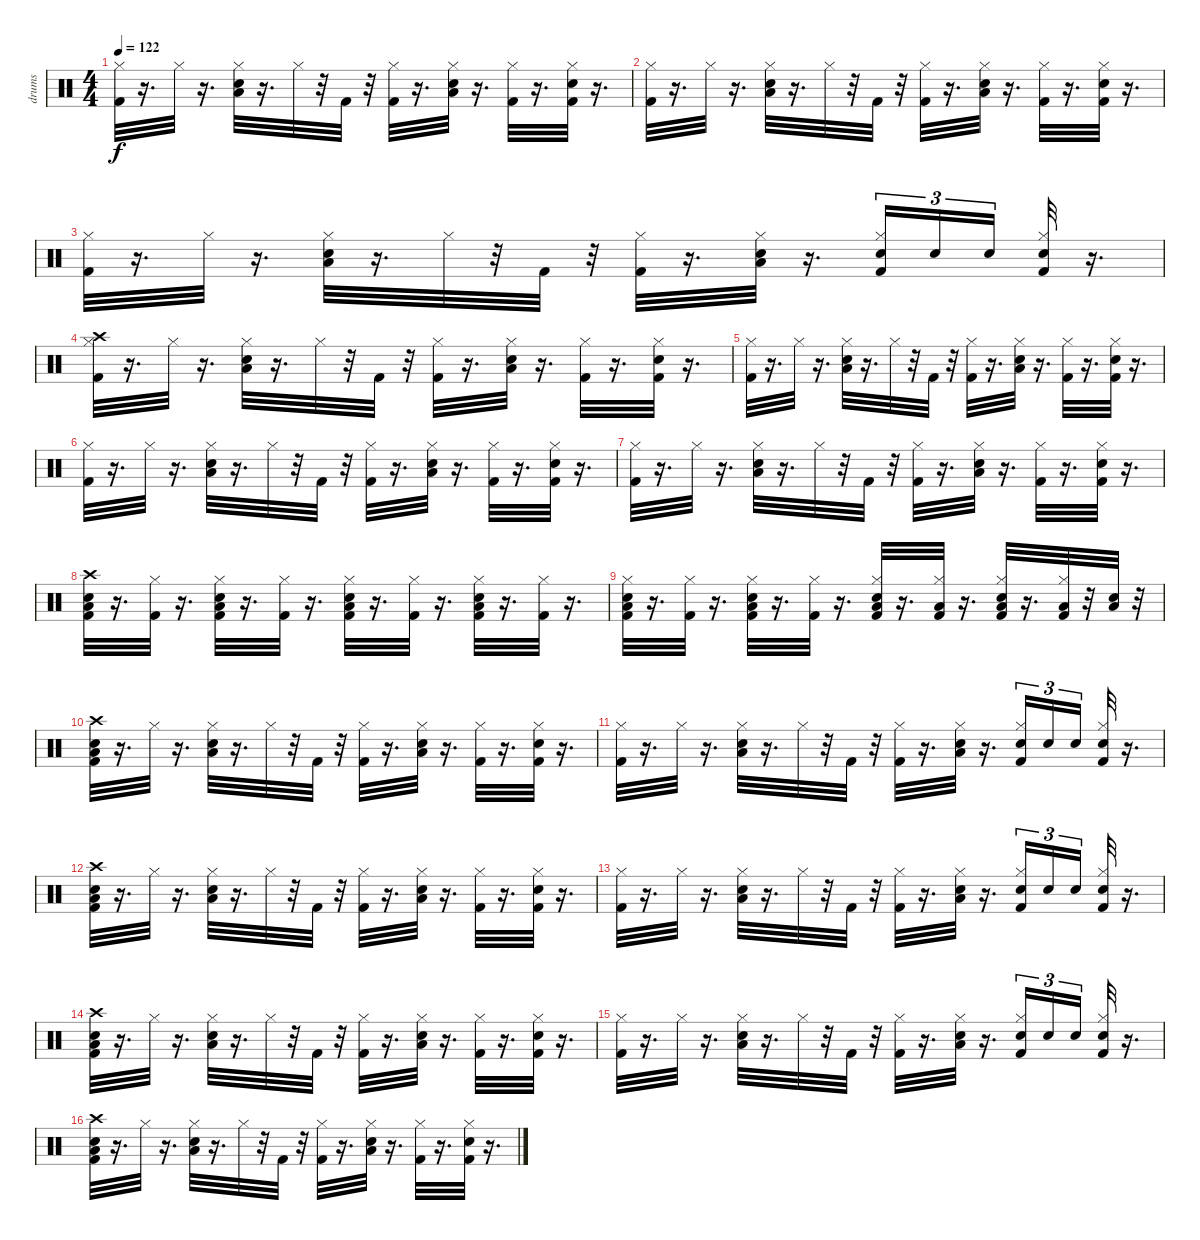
\track ("drums" "drums") {instrument percussion}
\staff {score}
\articulation defaults
\ts (4 4)
\tempo 122
\clef neutral
\ks c
("Kick (hit) 2" "Hi-Hat (closed)").32{dy f} r.16{d} "Hi-Hat (closed)".32 r.16{d} ("Low Floor Tom (hit)" "Hi-Hat (closed)" "Snare (hit) 2").32 r.16{d} "Hi-Hat (closed)".32 r.32 "Kick (hit) 2".32 r.32 ("Hi-Hat (closed)" "Kick (hit) 2").32 r.16{d} ("Low Floor Tom (hit)" "Hi-Hat (closed)" "Snare (hit) 2").32 r.16{d} ("Hi-Hat (closed)" "Kick (hit) 2").32 r.16{d} ("Snare (hit) 2" "Hi-Hat (closed)" "Kick (hit) 2").32 r.16{d} |
("Kick (hit) 2" "Hi-Hat (closed)").32 r.16{d} "Hi-Hat (closed)".32 r.16{d} ("Low Floor Tom (hit)" "Hi-Hat (closed)" "Snare (hit) 2").32 r.16{d} "Hi-Hat (closed)".32 r.32 "Kick (hit) 2".32 r.32 ("Hi-Hat (closed)" "Kick (hit) 2").32 r.16{d} ("Low Floor Tom (hit)" "Hi-Hat (closed)" "Snare (hit) 2").32 r.16{d} ("Hi-Hat (closed)" "Kick (hit) 2").32 r.16{d} ("Snare (hit) 2" "Hi-Hat (closed)" "Kick (hit) 2").32 r.16{d} |
("Kick (hit) 2" "Hi-Hat (closed)").32 r.16{d} "Hi-Hat (closed)".32 r.16{d} ("Low Floor Tom (hit)" "Hi-Hat (closed)" "Snare (hit) 2").32 r.16{d} "Hi-Hat (closed)".32 r.32 "Kick (hit) 2".32 r.32 ("Hi-Hat (closed)" "Kick (hit) 2").32 r.16{d} ("Low Floor Tom (hit)" "Hi-Hat (closed)" "Snare (hit) 2").32 r.16{d} ("Snare (hit) 2" "Hi-Hat (closed)" "Kick (hit) 2").16{tu (3 2)} "Snare (hit) 2".16{tu (3 2)} "Snare (hit) 2".16{tu (3 2)} ("Snare (hit) 2" "Hi-Hat (closed)" "Kick (hit) 2").32 r.16{d} |
("Crash high (hit)" "Kick (hit) 2" "Hi-Hat (closed)").32 r.16{d} "Hi-Hat (closed)".32 r.16{d} ("Low Floor Tom (hit)" "Hi-Hat (closed)" "Snare (hit) 2").32 r.16{d} "Hi-Hat (closed)".32 r.32 "Kick (hit) 2".32 r.32 ("Hi-Hat (closed)" "Kick (hit) 2").32 r.16{d} ("Low Floor Tom (hit)" "Hi-Hat (closed)" "Snare (hit) 2").32 r.16{d} ("Hi-Hat (closed)" "Kick (hit) 2").32 r.16{d} ("Snare (hit) 2" "Hi-Hat (closed)" "Kick (hit) 2").32 r.16{d} |
("Kick (hit) 2" "Hi-Hat (closed)").32 r.16{d} "Hi-Hat (closed)".32 r.16{d} ("Low Floor Tom (hit)" "Hi-Hat (closed)" "Snare (hit) 2").32 r.16{d} "Hi-Hat (closed)".32 r.32 "Kick (hit) 2".32 r.32 ("Hi-Hat (closed)" "Kick (hit) 2").32 r.16{d} ("Low Floor Tom (hit)" "Hi-Hat (closed)" "Snare (hit) 2").32 r.16{d} ("Hi-Hat (closed)" "Kick (hit) 2").32 r.16{d} ("Snare (hit) 2" "Hi-Hat (closed)" "Kick (hit) 2").32 r.16{d} |
("Kick (hit) 2" "Hi-Hat (closed)").32 r.16{d} "Hi-Hat (closed)".32 r.16{d} ("Hi-Hat (closed)" "Snare (hit) 2" "Low Floor Tom (hit)").32 r.16{d} "Hi-Hat (closed)".32 r.32 "Kick (hit) 2".32 r.32 ("Hi-Hat (closed)" "Kick (hit) 2").32 r.16{d} ("Hi-Hat (closed)" "Snare (hit) 2" "Low Floor Tom (hit)").32 r.16{d} ("Hi-Hat (closed)" "Kick (hit) 2").32 r.16{d} ("Snare (hit) 2" "Hi-Hat (closed)" "Kick (hit) 2").32 r.16{d} |
("Kick (hit) 2" "Hi-Hat (closed)").32 r.16{d} "Hi-Hat (closed)".32 r.16{d} ("Low Floor Tom (hit)" "Hi-Hat (closed)" "Snare (hit) 2").32 r.16{d} "Hi-Hat (closed)".32 r.32 "Kick (hit) 2".32 r.32 ("Hi-Hat (closed)" "Kick (hit) 2").32 r.16{d} ("Low Floor Tom (hit)" "Hi-Hat (closed)" "Snare (hit) 2").32 r.16{d} ("Hi-Hat (closed)" "Kick (hit) 2").32 r.16{d} ("Snare (hit) 2" "Hi-Hat (closed)" "Kick (hit) 2").32 r.16{d} |
("Low Floor Tom (hit)" "Crash high (hit)" "Snare (hit) 2" "Kick (hit) 2").32 r.16{d} ("Kick (hit) 2" "Hi-Hat (closed)").32 r.16{d} ("Low Floor Tom (hit)" "Hi-Hat (closed)" "Kick (hit) 2" "Snare (hit) 2").32 r.16{d} ("Kick (hit) 2" "Hi-Hat (closed)").32 r.16{d} ("Kick (hit) 2" "Snare (hit) 2" "Hi-Hat (closed)" "Low Floor Tom (hit)").32 r.16{d} ("Kick (hit) 2" "Hi-Hat (closed)").32 r.16{d} ("Low Floor Tom (hit)" "Kick (hit) 2" "Hi-Hat (closed)" "Snare (hit) 2").32 r.16{d} ("Kick (hit) 2" "Hi-Hat (closed)").32 r.16{d} |
("Low Floor Tom (hit)" "Snare (hit) 2" "Hi-Hat (closed)" "Kick (hit) 2").32 r.16{d} ("Kick (hit) 2" "Hi-Hat (closed)").32 r.16{d} ("Low Floor Tom (hit)" "Snare (hit) 2" "Kick (hit) 2" "Hi-Hat (closed)").32 r.16{d} ("Hi-Hat (closed)" "Kick (hit) 2").32 r.16{d} ("Low Floor Tom (hit)" "Snare (hit) 2" "Hi-Hat (closed)" "Kick (hit) 2").32 r.16{d} ("Low Floor Tom (hit)" "Kick (hit) 2" "Hi-Hat (closed)").32 r.16{d} ("Low Floor Tom (hit)" "Kick (hit) 2" "Hi-Hat (closed)" "Snare (hit) 2").32 r.16{d} ("Low Floor Tom (hit)" "Kick (hit) 2" "Hi-Hat (closed)").32 r.32 ("Snare (hit) 2" "Low Floor Tom (hit)").32 r.32 |
("Low Floor Tom (hit)" "Snare (hit) 2" "Kick (hit) 2" "Crash high (hit)").32 r.16{d} "Hi-Hat (closed)".32 r.16{d} ("Low Floor Tom (hit)" "Hi-Hat (closed)" "Snare (hit) 2").32 r.16{d} "Hi-Hat (closed)".32 r.32 "Kick (hit) 2".32 r.32 ("Hi-Hat (closed)" "Kick (hit) 2").32 r.16{d} ("Low Floor Tom (hit)" "Hi-Hat (closed)" "Snare (hit) 2").32 r.16{d} ("Hi-Hat (closed)" "Kick (hit) 2").32 r.16{d} ("Snare (hit) 2" "Hi-Hat (closed)" "Kick (hit) 2").32 r.16{d} |
("Kick (hit) 2" "Hi-Hat (closed)").32 r.16{d} "Hi-Hat (closed)".32 r.16{d} ("Low Floor Tom (hit)" "Hi-Hat (closed)" "Snare (hit) 2").32 r.16{d} "Hi-Hat (closed)".32 r.32 "Kick (hit) 2".32 r.32 ("Hi-Hat (closed)" "Kick (hit) 2").32 r.16{d} ("Low Floor Tom (hit)" "Hi-Hat (closed)" "Snare (hit) 2").32 r.16{d} ("Snare (hit) 2" "Hi-Hat (closed)" "Kick (hit) 2").16{tu (3 2)} "Snare (hit) 2".16{tu (3 2)} "Snare (hit) 2".16{tu (3 2)} ("Snare (hit) 2" "Hi-Hat (closed)" "Kick (hit) 2").32 r.16{d} |
("Low Floor Tom (hit)" "Snare (hit) 2" "Kick (hit) 2" "Crash high (hit)").32 r.16{d} "Hi-Hat (closed)".32 r.16{d} ("Low Floor Tom (hit)" "Hi-Hat (closed)" "Snare (hit) 2").32 r.16{d} "Hi-Hat (closed)".32 r.32 "Kick (hit) 2".32 r.32 ("Hi-Hat (closed)" "Kick (hit) 2").32 r.16{d} ("Low Floor Tom (hit)" "Hi-Hat (closed)" "Snare (hit) 2").32 r.16{d} ("Hi-Hat (closed)" "Kick (hit) 2").32 r.16{d} ("Snare (hit) 2" "Hi-Hat (closed)" "Kick (hit) 2").32 r.16{d} |
("Kick (hit) 2" "Hi-Hat (closed)").32 r.16{d} "Hi-Hat (closed)".32 r.16{d} ("Low Floor Tom (hit)" "Hi-Hat (closed)" "Snare (hit) 2").32 r.16{d} "Hi-Hat (closed)".32 r.32 "Kick (hit) 2".32 r.32 ("Hi-Hat (closed)" "Kick (hit) 2").32 r.16{d} ("Low Floor Tom (hit)" "Hi-Hat (closed)" "Snare (hit) 2").32 r.16{d} ("Snare (hit) 2" "Hi-Hat (closed)" "Kick (hit) 2").16{tu (3 2)} "Snare (hit) 2".16{tu (3 2)} "Snare (hit) 2".16{tu (3 2)} ("Snare (hit) 2" "Hi-Hat (closed)" "Kick (hit) 2").32 r.16{d} |
("Low Floor Tom (hit)" "Snare (hit) 2" "Kick (hit) 2" "Crash high (hit)").32 r.16{d} "Hi-Hat (closed)".32 r.16{d} ("Low Floor Tom (hit)" "Hi-Hat (closed)" "Snare (hit) 2").32 r.16{d} "Hi-Hat (closed)".32 r.32 "Kick (hit) 2".32 r.32 ("Hi-Hat (closed)" "Kick (hit) 2").32 r.16{d} ("Low Floor Tom (hit)" "Hi-Hat (closed)" "Snare (hit) 2").32 r.16{d} ("Hi-Hat (closed)" "Kick (hit) 2").32 r.16{d} ("Snare (hit) 2" "Hi-Hat (closed)" "Kick (hit) 2").32 r.16{d} |
("Kick (hit) 2" "Hi-Hat (closed)").32 r.16{d} "Hi-Hat (closed)".32 r.16{d} ("Low Floor Tom (hit)" "Hi-Hat (closed)" "Snare (hit) 2").32 r.16{d} "Hi-Hat (closed)".32 r.32 "Kick (hit) 2".32 r.32 ("Hi-Hat (closed)" "Kick (hit) 2").32 r.16{d} ("Low Floor Tom (hit)" "Hi-Hat (closed)" "Snare (hit) 2").32 r.16{d} ("Snare (hit) 2" "Hi-Hat (closed)" "Kick (hit) 2").16{tu (3 2)} "Snare (hit) 2".16{tu (3 2)} "Snare (hit) 2".16{tu (3 2)} ("Snare (hit) 2" "Hi-Hat (closed)" "Kick (hit) 2").32 r.16{d} |
("Low Floor Tom (hit)" "Snare (hit) 2" "Kick (hit) 2" "Crash high (hit)").32 r.16{d} "Hi-Hat (closed)".32 r.16{d} ("Low Floor Tom (hit)" "Hi-Hat (closed)" "Snare (hit) 2").32 r.16{d} "Hi-Hat (closed)".32 r.32 "Kick (hit) 2".32 r.32 ("Hi-Hat (closed)" "Kick (hit) 2").32 r.16{d} ("Low Floor Tom (hit)" "Hi-Hat (closed)" "Snare (hit) 2").32 r.16{d} ("Hi-Hat (closed)" "Kick (hit) 2").32 r.16{d} ("Snare (hit) 2" "Hi-Hat (closed)" "Kick (hit) 2").32 r.16{d}
